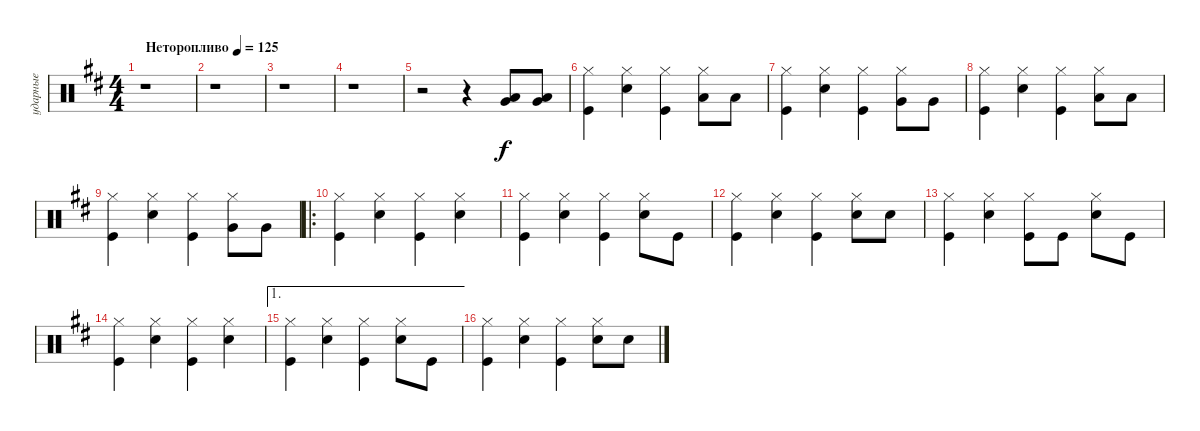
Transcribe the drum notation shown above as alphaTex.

\track ("ударные" "ударные") {instrument percussion}
\staff {score}
\articulation defaults
\ts (4 4)
\tempo (125 "Неторопливо")
\clef neutral
\ks d
r.1{dy f} |
r.1 |
r.1 |
r.1 |
r.2 r.4 ("Low Floor Tom (hit)" "Very Low Tom (hit)").8 ("Low Floor Tom (hit)" "Very Low Tom (hit)").8 |
("Kick (hit)" "Hi-Hat (closed)").4 ("Snare (hit) 2" "Hi-Hat (closed)").4 ("Kick (hit)" "Hi-Hat (closed)").4 ("Low Floor Tom (hit)" "Hi-Hat (closed)").8 "Low Floor Tom (hit)".8 |
("Kick (hit)" "Hi-Hat (closed)").4 ("Snare (hit) 2" "Hi-Hat (closed)").4 ("Kick (hit)" "Hi-Hat (closed)").4 ("Very Low Tom (hit)" "Hi-Hat (closed)").8 "Very Low Tom (hit)".8 |
("Kick (hit)" "Hi-Hat (closed)").4 ("Snare (hit) 2" "Hi-Hat (closed)").4 ("Kick (hit)" "Hi-Hat (closed)").4 ("Low Floor Tom (hit)" "Hi-Hat (closed)").8 "Low Floor Tom (hit)".8 |
("Kick (hit)" "Hi-Hat (closed)").4 ("Snare (hit) 2" "Hi-Hat (closed)").4 ("Kick (hit)" "Hi-Hat (closed)").4 ("Very Low Tom (hit)" "Hi-Hat (closed)").8 "Very Low Tom (hit)".8 |
\ro
("Kick (hit)" "Hi-Hat (closed)").4 ("Snare (hit) 2" "Hi-Hat (closed)").4 ("Kick (hit)" "Hi-Hat (closed)").4 ("Snare (hit) 2" "Hi-Hat (closed)").4 |
("Kick (hit)" "Hi-Hat (closed)").4 ("Snare (hit) 2" "Hi-Hat (closed)").4 ("Kick (hit)" "Hi-Hat (closed)").4 ("Snare (hit) 2" "Hi-Hat (closed)").8 "Kick (hit)".8 |
("Kick (hit)" "Hi-Hat (closed)").4 ("Snare (hit) 2" "Hi-Hat (closed)").4 ("Kick (hit)" "Hi-Hat (closed)").4 ("Snare (hit) 2" "Hi-Hat (closed)").8 "Snare (hit) 2".8 |
("Kick (hit)" "Hi-Hat (closed)").4 ("Snare (hit) 2" "Hi-Hat (closed)").4 ("Kick (hit)" "Hi-Hat (closed)").8 "Kick (hit)".8 ("Snare (hit) 2" "Hi-Hat (closed)").8 "Kick (hit)".8 |
("Kick (hit)" "Hi-Hat (closed)").4 ("Snare (hit) 2" "Hi-Hat (closed)").4 ("Kick (hit)" "Hi-Hat (closed)").4 ("Snare (hit) 2" "Hi-Hat (closed)").4 |
\ae 1
("Kick (hit)" "Hi-Hat (closed)").4 ("Snare (hit) 2" "Hi-Hat (closed)").4 ("Kick (hit)" "Hi-Hat (closed)").4 ("Snare (hit) 2" "Hi-Hat (closed)").8 "Kick (hit)".8 |
("Kick (hit)" "Hi-Hat (closed)").4 ("Snare (hit) 2" "Hi-Hat (closed)").4 ("Kick (hit)" "Hi-Hat (closed)").4 ("Snare (hit) 2" "Hi-Hat (closed)").8 "Snare (hit) 2".8
